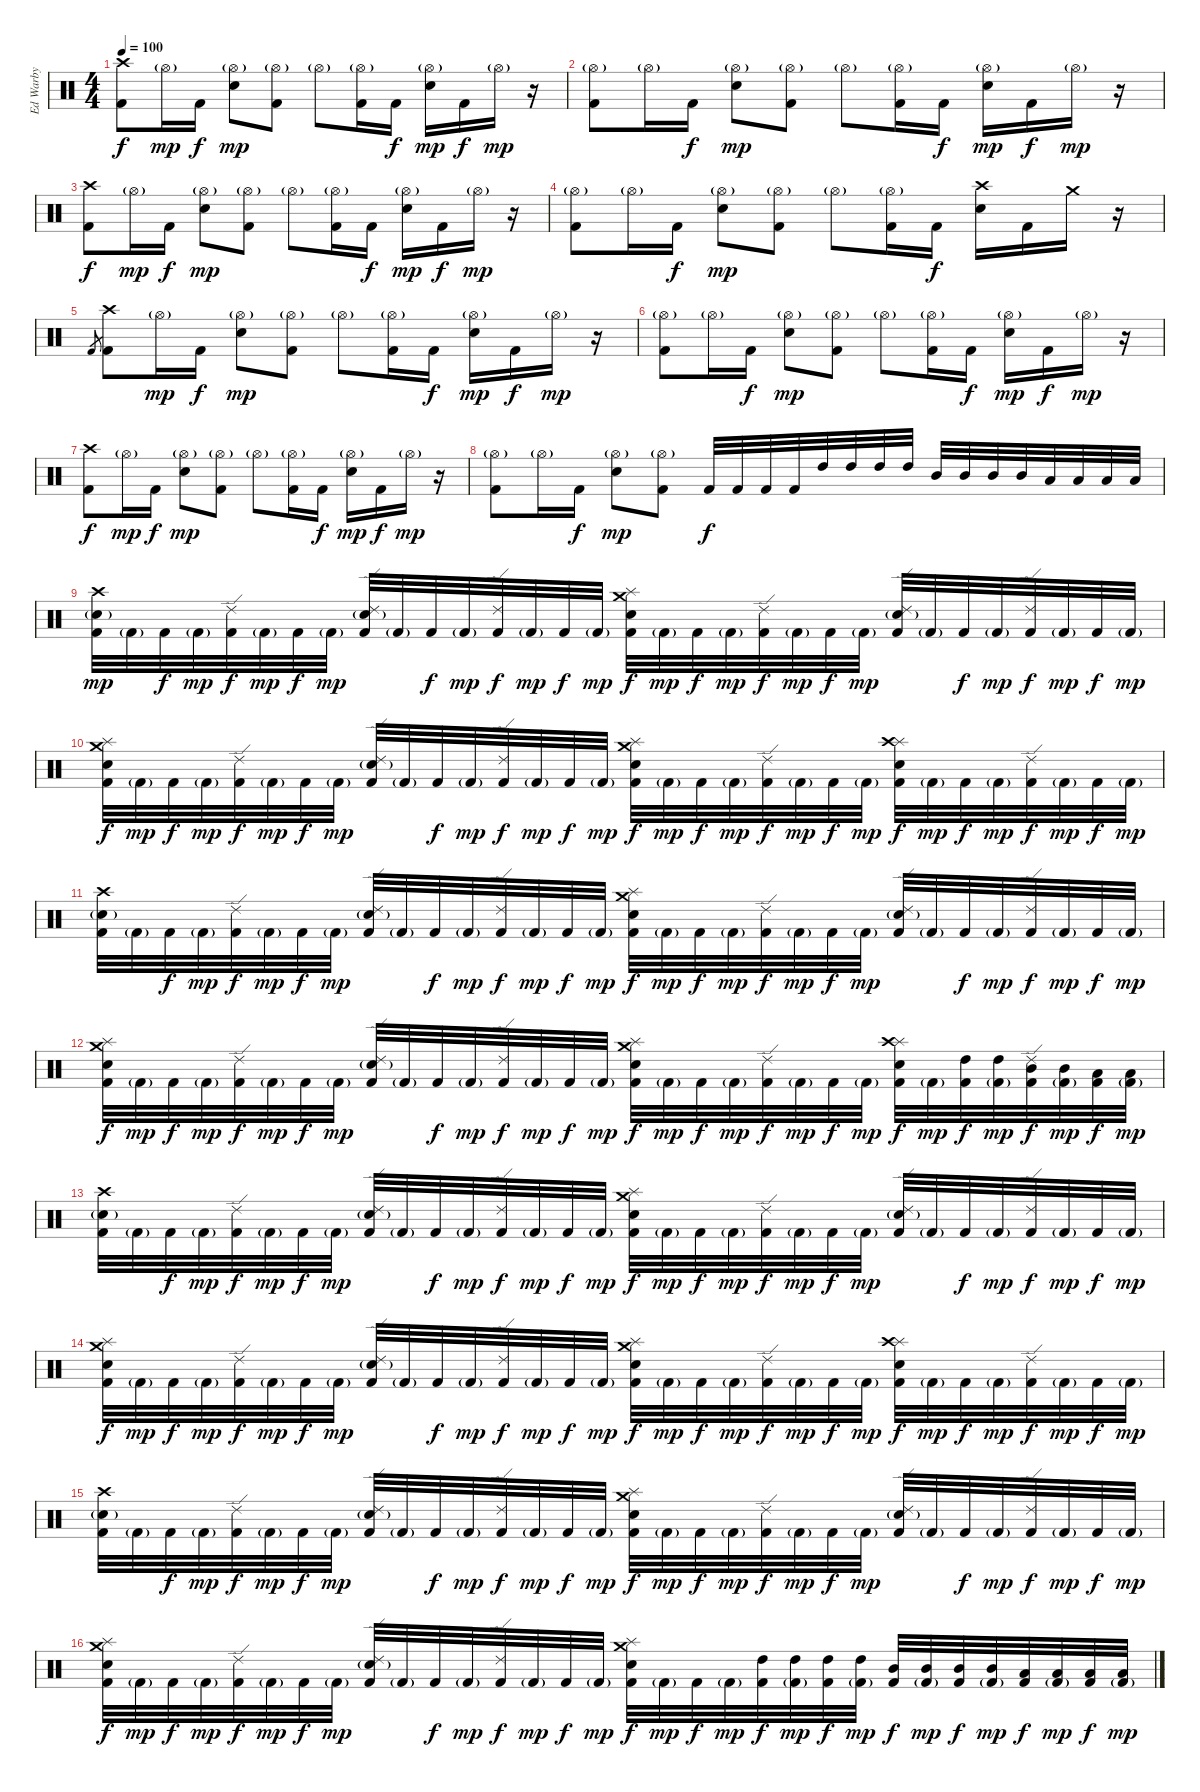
\track ("Ed Warby" "Ed Warby") {instrument percussion}
\staff {score}
\articulation defaults
\ts (4 4)
\tempo 100
\clef neutral
\ks c
("Crash high (hit)" "Kick (hit) 2").8{dy f} "Hi-Hat (open)"{g}.16{dy mp} "Kick (hit) 2".16{dy f} ("Hi-Hat (open)"{g} "Electric Snare (hit)").8{dy mp} ("Hi-Hat (open)"{g} "Kick (hit) 2").8 "Hi-Hat (open)"{g}.8 ("Hi-Hat (open)"{g} "Kick (hit) 2").16 "Kick (hit) 2".16{dy f} ("Hi-Hat (open)"{g} "Electric Snare (hit)").16{dy mp} "Kick (hit) 2".16{dy f} "Hi-Hat (open)"{g}.16{dy mp} r.16 |
("Hi-Hat (open)"{g} "Kick (hit) 2").8 "Hi-Hat (open)"{g}.16 "Kick (hit) 2".16{dy f} ("Hi-Hat (open)"{g} "Electric Snare (hit)").8{dy mp} ("Hi-Hat (open)"{g} "Kick (hit) 2").8 "Hi-Hat (open)"{g}.8 ("Hi-Hat (open)"{g} "Kick (hit) 2").16 "Kick (hit) 2".16{dy f} ("Hi-Hat (open)"{g} "Electric Snare (hit)").16{dy mp} "Kick (hit) 2".16{dy f} "Hi-Hat (open)"{g}.16{dy mp} r.16 |
("Crash high (hit)" "Kick (hit) 2").8{dy f} "Hi-Hat (open)"{g}.16{dy mp} "Kick (hit) 2".16{dy f} ("Hi-Hat (open)"{g} "Electric Snare (hit)").8{dy mp} ("Hi-Hat (open)"{g} "Kick (hit) 2").8 "Hi-Hat (open)"{g}.8 ("Hi-Hat (open)"{g} "Kick (hit) 2").16 "Kick (hit) 2".16{dy f} ("Hi-Hat (open)"{g} "Electric Snare (hit)").16{dy mp} "Kick (hit) 2".16{dy f} "Hi-Hat (open)"{g}.16{dy mp} r.16 |
("Hi-Hat (open)"{g} "Kick (hit) 2").8 "Hi-Hat (open)"{g}.16 "Kick (hit) 2".16{dy f} ("Hi-Hat (open)"{g} "Electric Snare (hit)").8{dy mp} ("Hi-Hat (open)"{g} "Kick (hit) 2").8 "Hi-Hat (open)"{g}.8 ("Hi-Hat (open)"{g} "Kick (hit) 2").16 "Kick (hit) 2".16{dy f} ("Crash high (hit)" "Electric Snare (hit)").16 "Kick (hit) 2".16 "Crash medium (hit)".16 r.16 |
"Kick (hit) 2".8{gr} ("Crash high (hit)" "Kick (hit) 2").8 "Hi-Hat (open)"{g}.16{dy mp} "Kick (hit) 2".16{dy f} ("Hi-Hat (open)"{g} "Electric Snare (hit)").8{dy mp} ("Hi-Hat (open)"{g} "Kick (hit) 2").8 "Hi-Hat (open)"{g}.8 ("Hi-Hat (open)"{g} "Kick (hit) 2").16 "Kick (hit) 2".16{dy f} ("Hi-Hat (open)"{g} "Electric Snare (hit)").16{dy mp} "Kick (hit) 2".16{dy f} "Hi-Hat (open)"{g}.16{dy mp} r.16 |
("Hi-Hat (open)"{g} "Kick (hit) 2").8 "Hi-Hat (open)"{g}.16 "Kick (hit) 2".16{dy f} ("Hi-Hat (open)"{g} "Electric Snare (hit)").8{dy mp} ("Hi-Hat (open)"{g} "Kick (hit) 2").8 "Hi-Hat (open)"{g}.8 ("Hi-Hat (open)"{g} "Kick (hit) 2").16 "Kick (hit) 2".16{dy f} ("Hi-Hat (open)"{g} "Electric Snare (hit)").16{dy mp} "Kick (hit) 2".16{dy f} "Hi-Hat (open)"{g}.16{dy mp} r.16 |
("Crash high (hit)" "Kick (hit) 2").8{dy f} "Hi-Hat (open)"{g}.16{dy mp} "Kick (hit) 2".16{dy f} ("Hi-Hat (open)"{g} "Electric Snare (hit)").8{dy mp} ("Hi-Hat (open)"{g} "Kick (hit) 2").8 "Hi-Hat (open)"{g}.8 ("Hi-Hat (open)"{g} "Kick (hit) 2").16 "Kick (hit) 2".16{dy f} ("Hi-Hat (open)"{g} "Electric Snare (hit)").16{dy mp} "Kick (hit) 2".16{dy f} "Hi-Hat (open)"{g}.16{dy mp} r.16 |
("Hi-Hat (open)"{g} "Kick (hit) 2").8 "Hi-Hat (open)"{g}.16 "Kick (hit) 2".16{dy f} ("Hi-Hat (open)"{g} "Electric Snare (hit)").8{dy mp} ("Hi-Hat (open)"{g} "Kick (hit) 2").8 "Kick (hit) 2".32{dy f} "Kick (hit) 2".32 "Kick (hit) 2".32 "Kick (hit) 2".32 "High Tom (hit)".32 "High Tom (hit)".32 "High Tom (hit)".32 "High Tom (hit)".32 "Mid Tom (hit)".32 "Mid Tom (hit)".32 "Mid Tom (hit)".32 "Mid Tom (hit)".32 "Low Tom (hit)".32 "Low Tom (hit)".32 "Low Tom (hit)".32 "Low Tom (hit)".32 |
("Crash high (hit)" "Snare (hit) 2"{g} "Kick (hit) 2").32{dy mp} "Kick (hit) 2"{g}.32 "Kick (hit) 2".32{dy f} "Kick (hit) 2"{g}.32{dy mp} ("Ride (edge) 2" "Kick (hit) 2").32{dy f} "Kick (hit) 2"{g}.32{dy mp} "Kick (hit) 2".32{dy f} "Kick (hit) 2"{g}.32{dy mp} ("Ride (edge) 2" "Snare (hit) 2"{g} "Kick (hit) 2").32 "Kick (hit) 2"{g}.32 "Kick (hit) 2".32{dy f} "Kick (hit) 2"{g}.32{dy mp} ("Ride (edge) 2" "Kick (hit) 2").32{dy f} "Kick (hit) 2"{g}.32{dy mp} "Kick (hit) 2".32{dy f} "Kick (hit) 2"{g}.32{dy mp} ("Splash (hit)" "Crash medium (hit)" "Snare (hit) 2" "Kick (hit) 2").32{dy f} "Kick (hit) 2"{g}.32{dy mp} "Kick (hit) 2".32{dy f} "Kick (hit) 2"{g}.32{dy mp} ("Ride (edge) 2" "Kick (hit) 2").32{dy f} "Kick (hit) 2"{g}.32{dy mp} "Kick (hit) 2".32{dy f} "Kick (hit) 2"{g}.32{dy mp} ("Ride (edge) 2" "Snare (hit) 2"{g} "Kick (hit) 2").32 "Kick (hit) 2"{g}.32 "Kick (hit) 2".32{dy f} "Kick (hit) 2"{g}.32{dy mp} ("Ride (edge) 2" "Kick (hit) 2").32{dy f} "Kick (hit) 2"{g}.32{dy mp} "Kick (hit) 2".32{dy f} "Kick (hit) 2"{g}.32{dy mp} |
("Splash (hit)" "Crash medium (hit)" "Snare (hit) 2" "Kick (hit) 2").32{dy f} "Kick (hit) 2"{g}.32{dy mp} "Kick (hit) 2".32{dy f} "Kick (hit) 2"{g}.32{dy mp} ("Ride (edge) 2" "Kick (hit) 2").32{dy f} "Kick (hit) 2"{g}.32{dy mp} "Kick (hit) 2".32{dy f} "Kick (hit) 2"{g}.32{dy mp} ("Ride (edge) 2" "Snare (hit) 2"{g} "Kick (hit) 2").32 "Kick (hit) 2"{g}.32 "Kick (hit) 2".32{dy f} "Kick (hit) 2"{g}.32{dy mp} ("Ride (edge) 2" "Kick (hit) 2").32{dy f} "Kick (hit) 2"{g}.32{dy mp} "Kick (hit) 2".32{dy f} "Kick (hit) 2"{g}.32{dy mp} ("Splash (hit)" "Crash medium (hit)" "Snare (hit) 2" "Kick (hit) 2").32{dy f} "Kick (hit) 2"{g}.32{dy mp} "Kick (hit) 2".32{dy f} "Kick (hit) 2"{g}.32{dy mp} ("Ride (edge) 2" "Kick (hit) 2").32{dy f} "Kick (hit) 2"{g}.32{dy mp} "Kick (hit) 2".32{dy f} "Kick (hit) 2"{g}.32{dy mp} ("Splash (hit)" "Crash high (hit)" "Snare (hit) 2" "Kick (hit) 2").32{dy f} "Kick (hit) 2"{g}.32{dy mp} "Kick (hit) 2".32{dy f} "Kick (hit) 2"{g}.32{dy mp} ("Ride (edge) 2" "Kick (hit) 2").32{dy f} "Kick (hit) 2"{g}.32{dy mp} "Kick (hit) 2".32{dy f} "Kick (hit) 2"{g}.32{dy mp} |
("Crash high (hit)" "Snare (hit) 2"{g} "Kick (hit) 2").32 "Kick (hit) 2"{g}.32 "Kick (hit) 2".32{dy f} "Kick (hit) 2"{g}.32{dy mp} ("Ride (edge) 2" "Kick (hit) 2").32{dy f} "Kick (hit) 2"{g}.32{dy mp} "Kick (hit) 2".32{dy f} "Kick (hit) 2"{g}.32{dy mp} ("Ride (edge) 2" "Snare (hit) 2"{g} "Kick (hit) 2").32 "Kick (hit) 2"{g}.32 "Kick (hit) 2".32{dy f} "Kick (hit) 2"{g}.32{dy mp} ("Ride (edge) 2" "Kick (hit) 2").32{dy f} "Kick (hit) 2"{g}.32{dy mp} "Kick (hit) 2".32{dy f} "Kick (hit) 2"{g}.32{dy mp} ("Splash (hit)" "Crash medium (hit)" "Snare (hit) 2" "Kick (hit) 2").32{dy f} "Kick (hit) 2"{g}.32{dy mp} "Kick (hit) 2".32{dy f} "Kick (hit) 2"{g}.32{dy mp} ("Ride (edge) 2" "Kick (hit) 2").32{dy f} "Kick (hit) 2"{g}.32{dy mp} "Kick (hit) 2".32{dy f} "Kick (hit) 2"{g}.32{dy mp} ("Ride (edge) 2" "Snare (hit) 2"{g} "Kick (hit) 2").32 "Kick (hit) 2"{g}.32 "Kick (hit) 2".32{dy f} "Kick (hit) 2"{g}.32{dy mp} ("Ride (edge) 2" "Kick (hit) 2").32{dy f} "Kick (hit) 2"{g}.32{dy mp} "Kick (hit) 2".32{dy f} "Kick (hit) 2"{g}.32{dy mp} |
("Splash (hit)" "Crash medium (hit)" "Snare (hit) 2" "Kick (hit) 2").32{dy f} "Kick (hit) 2"{g}.32{dy mp} "Kick (hit) 2".32{dy f} "Kick (hit) 2"{g}.32{dy mp} ("Ride (edge) 2" "Kick (hit) 2").32{dy f} "Kick (hit) 2"{g}.32{dy mp} "Kick (hit) 2".32{dy f} "Kick (hit) 2"{g}.32{dy mp} ("Ride (edge) 2" "Snare (hit) 2"{g} "Kick (hit) 2").32 "Kick (hit) 2"{g}.32 "Kick (hit) 2".32{dy f} "Kick (hit) 2"{g}.32{dy mp} ("Ride (edge) 2" "Kick (hit) 2").32{dy f} "Kick (hit) 2"{g}.32{dy mp} "Kick (hit) 2".32{dy f} "Kick (hit) 2"{g}.32{dy mp} ("Splash (hit)" "Crash medium (hit)" "Snare (hit) 2" "Kick (hit) 2").32{dy f} "Kick (hit) 2"{g}.32{dy mp} "Kick (hit) 2".32{dy f} "Kick (hit) 2"{g}.32{dy mp} ("Ride (edge) 2" "Kick (hit) 2").32{dy f} "Kick (hit) 2"{g}.32{dy mp} "Kick (hit) 2".32{dy f} "Kick (hit) 2"{g}.32{dy mp} ("Splash (hit)" "Crash high (hit)" "Snare (hit) 2" "Kick (hit) 2").32{dy f} "Kick (hit) 2"{g}.32{dy mp} ("High Tom (hit)" "Kick (hit) 2").32{dy f} ("High Tom (hit)" "Kick (hit) 2"{g}).32{dy mp} ("Ride (edge) 2" "Mid Tom (hit)" "Kick (hit) 2").32{dy f} ("Mid Tom (hit)" "Kick (hit) 2"{g}).32{dy mp} ("Low Tom (hit)" "Kick (hit) 2").32{dy f} ("Low Tom (hit)" "Kick (hit) 2"{g}).32{dy mp} |
("Crash high (hit)" "Snare (hit) 2"{g} "Kick (hit) 2").32 "Kick (hit) 2"{g}.32 "Kick (hit) 2".32{dy f} "Kick (hit) 2"{g}.32{dy mp} ("Ride (edge) 2" "Kick (hit) 2").32{dy f} "Kick (hit) 2"{g}.32{dy mp} "Kick (hit) 2".32{dy f} "Kick (hit) 2"{g}.32{dy mp} ("Ride (edge) 2" "Snare (hit) 2"{g} "Kick (hit) 2").32 "Kick (hit) 2"{g}.32 "Kick (hit) 2".32{dy f} "Kick (hit) 2"{g}.32{dy mp} ("Ride (edge) 2" "Kick (hit) 2").32{dy f} "Kick (hit) 2"{g}.32{dy mp} "Kick (hit) 2".32{dy f} "Kick (hit) 2"{g}.32{dy mp} ("Splash (hit)" "Crash medium (hit)" "Snare (hit) 2" "Kick (hit) 2").32{dy f} "Kick (hit) 2"{g}.32{dy mp} "Kick (hit) 2".32{dy f} "Kick (hit) 2"{g}.32{dy mp} ("Ride (edge) 2" "Kick (hit) 2").32{dy f} "Kick (hit) 2"{g}.32{dy mp} "Kick (hit) 2".32{dy f} "Kick (hit) 2"{g}.32{dy mp} ("Ride (edge) 2" "Snare (hit) 2"{g} "Kick (hit) 2").32 "Kick (hit) 2"{g}.32 "Kick (hit) 2".32{dy f} "Kick (hit) 2"{g}.32{dy mp} ("Ride (edge) 2" "Kick (hit) 2").32{dy f} "Kick (hit) 2"{g}.32{dy mp} "Kick (hit) 2".32{dy f} "Kick (hit) 2"{g}.32{dy mp} |
("Splash (hit)" "Crash medium (hit)" "Snare (hit) 2" "Kick (hit) 2").32{dy f} "Kick (hit) 2"{g}.32{dy mp} "Kick (hit) 2".32{dy f} "Kick (hit) 2"{g}.32{dy mp} ("Ride (edge) 2" "Kick (hit) 2").32{dy f} "Kick (hit) 2"{g}.32{dy mp} "Kick (hit) 2".32{dy f} "Kick (hit) 2"{g}.32{dy mp} ("Ride (edge) 2" "Snare (hit) 2"{g} "Kick (hit) 2").32 "Kick (hit) 2"{g}.32 "Kick (hit) 2".32{dy f} "Kick (hit) 2"{g}.32{dy mp} ("Ride (edge) 2" "Kick (hit) 2").32{dy f} "Kick (hit) 2"{g}.32{dy mp} "Kick (hit) 2".32{dy f} "Kick (hit) 2"{g}.32{dy mp} ("Splash (hit)" "Crash medium (hit)" "Snare (hit) 2" "Kick (hit) 2").32{dy f} "Kick (hit) 2"{g}.32{dy mp} "Kick (hit) 2".32{dy f} "Kick (hit) 2"{g}.32{dy mp} ("Ride (edge) 2" "Kick (hit) 2").32{dy f} "Kick (hit) 2"{g}.32{dy mp} "Kick (hit) 2".32{dy f} "Kick (hit) 2"{g}.32{dy mp} ("Splash (hit)" "Crash high (hit)" "Snare (hit) 2" "Kick (hit) 2").32{dy f} "Kick (hit) 2"{g}.32{dy mp} "Kick (hit) 2".32{dy f} "Kick (hit) 2"{g}.32{dy mp} ("Ride (edge) 2" "Kick (hit) 2").32{dy f} "Kick (hit) 2"{g}.32{dy mp} "Kick (hit) 2".32{dy f} "Kick (hit) 2"{g}.32{dy mp} |
("Crash high (hit)" "Snare (hit) 2"{g} "Kick (hit) 2").32 "Kick (hit) 2"{g}.32 "Kick (hit) 2".32{dy f} "Kick (hit) 2"{g}.32{dy mp} ("Ride (edge) 2" "Kick (hit) 2").32{dy f} "Kick (hit) 2"{g}.32{dy mp} "Kick (hit) 2".32{dy f} "Kick (hit) 2"{g}.32{dy mp} ("Ride (edge) 2" "Snare (hit) 2"{g} "Kick (hit) 2").32 "Kick (hit) 2"{g}.32 "Kick (hit) 2".32{dy f} "Kick (hit) 2"{g}.32{dy mp} ("Ride (edge) 2" "Kick (hit) 2").32{dy f} "Kick (hit) 2"{g}.32{dy mp} "Kick (hit) 2".32{dy f} "Kick (hit) 2"{g}.32{dy mp} ("Splash (hit)" "Crash medium (hit)" "Snare (hit) 2" "Kick (hit) 2").32{dy f} "Kick (hit) 2"{g}.32{dy mp} "Kick (hit) 2".32{dy f} "Kick (hit) 2"{g}.32{dy mp} ("Ride (edge) 2" "Kick (hit) 2").32{dy f} "Kick (hit) 2"{g}.32{dy mp} "Kick (hit) 2".32{dy f} "Kick (hit) 2"{g}.32{dy mp} ("Ride (edge) 2" "Snare (hit) 2"{g} "Kick (hit) 2").32 "Kick (hit) 2"{g}.32 "Kick (hit) 2".32{dy f} "Kick (hit) 2"{g}.32{dy mp} ("Ride (edge) 2" "Kick (hit) 2").32{dy f} "Kick (hit) 2"{g}.32{dy mp} "Kick (hit) 2".32{dy f} "Kick (hit) 2"{g}.32{dy mp} |
("Splash (hit)" "Crash medium (hit)" "Snare (hit) 2" "Kick (hit) 2").32{dy f} "Kick (hit) 2"{g}.32{dy mp} "Kick (hit) 2".32{dy f} "Kick (hit) 2"{g}.32{dy mp} ("Ride (edge) 2" "Kick (hit) 2").32{dy f} "Kick (hit) 2"{g}.32{dy mp} "Kick (hit) 2".32{dy f} "Kick (hit) 2"{g}.32{dy mp} ("Ride (edge) 2" "Snare (hit) 2"{g} "Kick (hit) 2").32 "Kick (hit) 2"{g}.32 "Kick (hit) 2".32{dy f} "Kick (hit) 2"{g}.32{dy mp} ("Ride (edge) 2" "Kick (hit) 2").32{dy f} "Kick (hit) 2"{g}.32{dy mp} "Kick (hit) 2".32{dy f} "Kick (hit) 2"{g}.32{dy mp} ("Splash (hit)" "Crash medium (hit)" "Snare (hit) 2" "Kick (hit) 2").32{dy f} "Kick (hit) 2"{g}.32{dy mp} "Kick (hit) 2".32{dy f} "Kick (hit) 2"{g}.32{dy mp} ("High Tom (hit)" "Kick (hit) 2").32{dy f} ("High Tom (hit)" "Kick (hit) 2"{g}).32{dy mp} ("High Tom (hit)" "Kick (hit) 2").32{dy f} ("High Tom (hit)" "Kick (hit) 2"{g}).32{dy mp} ("Mid Tom (hit)" "Kick (hit) 2").32{dy f} ("Mid Tom (hit)" "Kick (hit) 2"{g}).32{dy mp} ("Mid Tom (hit)" "Kick (hit) 2").32{dy f} ("Mid Tom (hit)" "Kick (hit) 2"{g}).32{dy mp} ("Low Tom (hit)" "Kick (hit) 2").32{dy f} ("Low Tom (hit)" "Kick (hit) 2"{g}).32{dy mp} ("Low Tom (hit)" "Kick (hit) 2").32{dy f} ("Low Tom (hit)" "Kick (hit) 2"{g}).32{dy mp}
